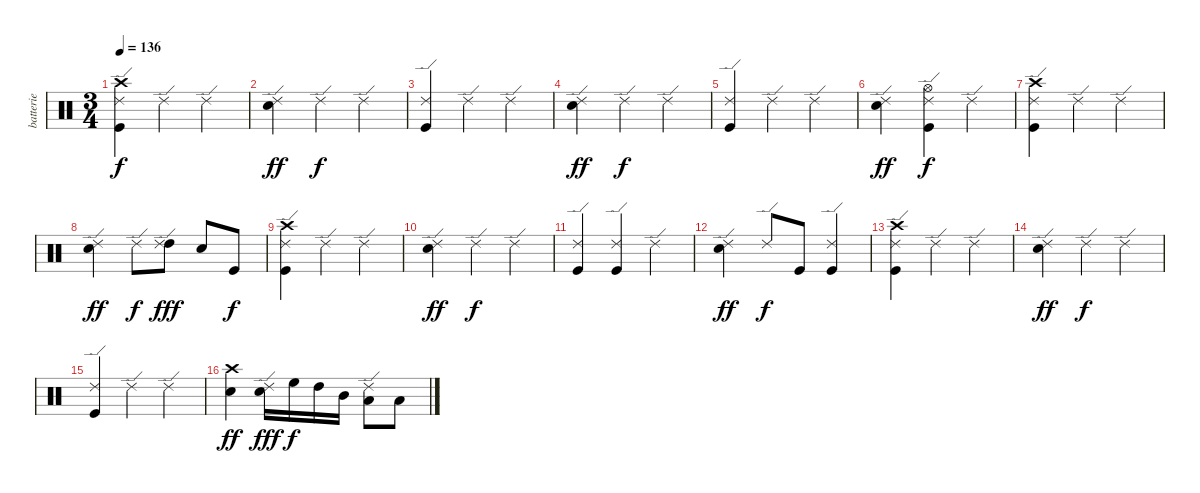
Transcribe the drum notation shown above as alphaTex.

\track ("batterie" "batterie") {instrument percussion}
\staff {score}
\articulation defaults
\ts (3 4)
\tempo 136
\clef neutral
\ks c
("Kick (hit)" "Ride (edge) 2" "Crash high (hit)").4{dy f} "Ride (edge) 2".4 "Ride (edge) 2".4 |
("Electric Snare (hit)" "Ride (edge) 2").4{dy ff} "Ride (edge) 2".4{dy f} "Ride (edge) 2".4 |
("Kick (hit)" "Ride (edge) 2").4 "Ride (edge) 2".4 "Ride (edge) 2".4 |
("Electric Snare (hit)" "Ride (edge) 2").4{dy ff} "Ride (edge) 2".4{dy f} "Ride (edge) 2".4 |
("Kick (hit)" "Ride (edge) 2").4 "Ride (edge) 2".4 "Ride (edge) 2".4 |
("Electric Snare (hit)" "Ride (edge) 2").4{dy ff} ("Kick (hit)" "Ride (edge) 2" "Hi-Hat (open)").4{dy f} "Ride (edge) 2".4 |
("Kick (hit)" "Ride (edge) 2" "Crash high (hit)").4 "Ride (edge) 2".4 "Ride (edge) 2".4 |
("Electric Snare (hit)" "Ride (edge) 2").4{dy ff} "Ride (edge) 2".8{dy f} ("High Tom (hit)" "Ride (edge) 2").8{dy fff} "Electric Snare (hit)".8 "Kick (hit)".8{dy f} |
("Kick (hit)" "Ride (edge) 2" "Crash high (hit)").4 "Ride (edge) 2".4 "Ride (edge) 2".4 |
("Electric Snare (hit)" "Ride (edge) 2").4{dy ff} "Ride (edge) 2".4{dy f} "Ride (edge) 2".4 |
("Kick (hit)" "Ride (edge) 2").4 ("Kick (hit)" "Ride (edge) 2").4 "Ride (edge) 2".4 |
("Electric Snare (hit)" "Ride (edge) 2").4{dy ff} "Ride (edge) 2".8{dy f} "Kick (hit)".8 ("Kick (hit)" "Ride (edge) 2").4 |
("Kick (hit)" "Ride (edge) 2" "Crash high (hit)").4 "Ride (edge) 2".4 "Ride (edge) 2".4 |
("Electric Snare (hit)" "Ride (edge) 2").4{dy ff} "Ride (edge) 2".4{dy f} "Ride (edge) 2".4 |
("Kick (hit)" "Ride (edge) 2").4 "Ride (edge) 2".4 "Ride (edge) 2".4 |
("Electric Snare (hit)" "Crash high (hit)").4{dy ff} ("Electric Snare (hit)" "Ride (edge) 2").16{dy fff} "High Floor Tom (hit)".16{dy f} "High Tom (hit)".16 "Mid Tom (hit)".16 ("Low Floor Tom (hit)" "Ride (edge) 2").8 "Low Floor Tom (hit)".8
